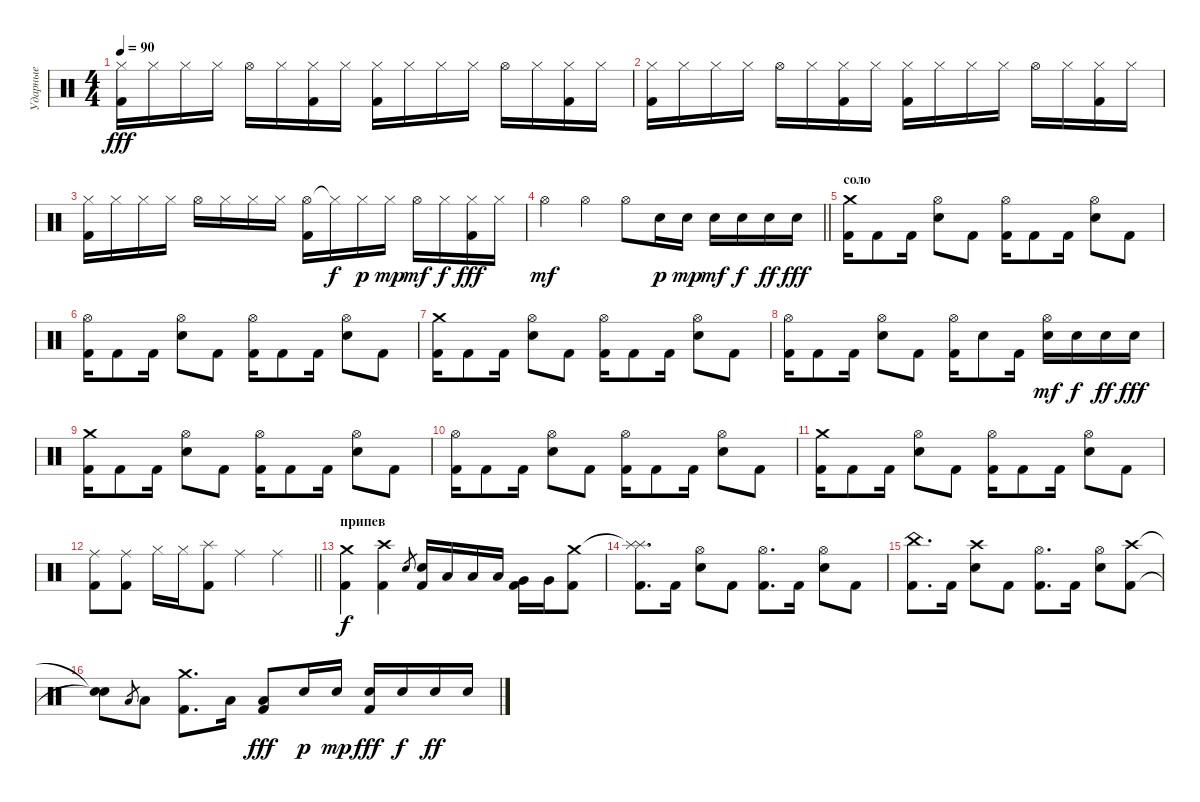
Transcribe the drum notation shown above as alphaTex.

\track ("Ударные" "Ударные") {instrument percussion}
\staff {score}
\articulation defaults
\ts (4 4)
\tempo 90
\clef neutral
\ks c
("Hi-Hat (closed)" "Kick (hit) 2").16{dy fff} "Hi-Hat (closed)".16 "Hi-Hat (closed)".16 "Hi-Hat (closed)".16 "Hi-Hat (open)".16 "Hi-Hat (closed)".16 ("Hi-Hat (closed)" "Kick (hit) 2").16 "Hi-Hat (closed)".16 ("Hi-Hat (closed)" "Kick (hit) 2").16 "Hi-Hat (closed)".16 "Hi-Hat (closed)".16 "Hi-Hat (closed)".16 "Hi-Hat (open)".16 "Hi-Hat (closed)".16 ("Hi-Hat (closed)" "Kick (hit) 2").16 "Hi-Hat (closed)".16 |
("Hi-Hat (closed)" "Kick (hit) 2").16 "Hi-Hat (closed)".16 "Hi-Hat (closed)".16 "Hi-Hat (closed)".16 "Hi-Hat (open)".16 "Hi-Hat (closed)".16 ("Hi-Hat (closed)" "Kick (hit) 2").16 "Hi-Hat (closed)".16 ("Hi-Hat (closed)" "Kick (hit) 2").16 "Hi-Hat (closed)".16 "Hi-Hat (closed)".16 "Hi-Hat (closed)".16 "Hi-Hat (open)".16 "Hi-Hat (closed)".16 ("Hi-Hat (closed)" "Kick (hit) 2").16 "Hi-Hat (closed)".16 |
("Hi-Hat (closed)" "Kick (hit) 2").16 "Hi-Hat (closed)".16 "Hi-Hat (closed)".16 "Hi-Hat (closed)".16 "Hi-Hat (open)".16 "Hi-Hat (closed)".16 "Hi-Hat (closed)".16 "Hi-Hat (closed)".16 ("Hi-Hat (open)" "Kick (hit) 2").16 "Hi-Hat (closed)"{t}.16{dy f} "Hi-Hat (closed)".16{dy p} "Hi-Hat (closed)".16{dy mp} "Hi-Hat (open)".16{dy mf} "Hi-Hat (closed)".16{dy f} ("Hi-Hat (closed)" "Kick (hit) 2").16{dy fff} "Hi-Hat (closed)".16 |
\barLineRight lightlight "Hi-Hat (open)".4{dy mf} "Hi-Hat (open)".4 "Hi-Hat (open)".8 "Snare (hit) 2".16{dy p} "Snare (hit) 2".16{dy mp} "Snare (hit) 2".16{dy mf} "Snare (hit) 2".16{dy f} "Snare (hit) 2".16{dy ff} "Snare (hit) 2".16{dy fff}
|
\section ("" "соло")
("Crash medium (hit)" "Kick (hit) 2").16 "Kick (hit) 2".8 "Kick (hit) 2".16 ("Hi-Hat (open)" "Snare (hit) 2").8 "Kick (hit) 2".8 ("Hi-Hat (open)" "Kick (hit) 2").16 "Kick (hit) 2".8 "Kick (hit) 2".16 ("Hi-Hat (open)" "Snare (hit) 2").8 "Kick (hit) 2".8 |
("Hi-Hat (open)" "Kick (hit) 2").16 "Kick (hit) 2".8 "Kick (hit) 2".16 ("Hi-Hat (open)" "Snare (hit) 2").8 "Kick (hit) 2".8 ("Hi-Hat (open)" "Kick (hit) 2").16 "Kick (hit) 2".8 "Kick (hit) 2".16 ("Hi-Hat (open)" "Snare (hit) 2").8 "Kick (hit) 2".8 |
("Crash medium (hit)" "Kick (hit) 2").16 "Kick (hit) 2".8 "Kick (hit) 2".16 ("Hi-Hat (open)" "Snare (hit) 2").8 "Kick (hit) 2".8 ("Hi-Hat (open)" "Kick (hit) 2").16 "Kick (hit) 2".8 "Kick (hit) 2".16 ("Hi-Hat (open)" "Snare (hit) 2").8 "Kick (hit) 2".8 |
("Hi-Hat (open)" "Kick (hit) 2").16 "Kick (hit) 2".8 "Kick (hit) 2".16 ("Hi-Hat (open)" "Snare (hit) 2").8 "Kick (hit) 2".8 ("Hi-Hat (open)" "Kick (hit) 2").16 "Snare (hit) 2".8 "Kick (hit) 2".16 ("Hi-Hat (open)" "Snare (hit) 2").16{dy mf} "Snare (hit) 2".16{dy f} "Snare (hit) 2".16{dy ff} "Snare (hit) 2".16{dy fff} |
("Crash medium (hit)" "Kick (hit) 2").16 "Kick (hit) 2".8 "Kick (hit) 2".16 ("Hi-Hat (open)" "Snare (hit) 2").8 "Kick (hit) 2".8 ("Hi-Hat (open)" "Kick (hit) 2").16 "Kick (hit) 2".8 "Kick (hit) 2".16 ("Hi-Hat (open)" "Snare (hit) 2").8 "Kick (hit) 2".8 |
("Hi-Hat (open)" "Kick (hit) 2").16 "Kick (hit) 2".8 "Kick (hit) 2".16 ("Hi-Hat (open)" "Snare (hit) 2").8 "Kick (hit) 2".8 ("Hi-Hat (open)" "Kick (hit) 2").16 "Kick (hit) 2".8 "Kick (hit) 2".16 ("Hi-Hat (open)" "Snare (hit) 2").8 "Kick (hit) 2".8 |
("Crash medium (hit)" "Kick (hit) 2").16 "Kick (hit) 2".8 "Kick (hit) 2".16 ("Hi-Hat (open)" "Snare (hit) 2").8 "Kick (hit) 2".8 ("Hi-Hat (open)" "Kick (hit) 2").16 "Kick (hit) 2".8 "Kick (hit) 2".16 ("Hi-Hat (open)" "Snare (hit) 2").8 "Kick (hit) 2".8 |
\barLineRight lightlight
("Ride (middle)" "Kick (hit) 2").8 ("Ride (middle)" "Kick (hit) 2").8 "Hi-Hat (closed)".16 "Hi-Hat (closed)".16 ("Splash (hit)" "Kick (hit) 2").8 "Ride (middle)".4 "Ride (middle)".4 |
\section ("" "припев")
("Crash medium (hit)" "Kick (hit) 2").4{dy f} ("Crash high (hit)" "Kick (hit) 2").4 "Snare (hit) 2".8{gr} ("Snare (hit) 2" "Kick (hit) 2").16 "Low Tom (hit)".16 "Low Tom (hit)".16 "Low Tom (hit)".16 ("Very Low Tom (hit)" "Kick (hit) 2").16 "Very Low Tom (hit)".16 ("Crash medium (hit)" "Kick (hit) 2").8 |
("Splash (hit)"{t} "Splash (hit)" "Kick (hit) 2").8{d} "Kick (hit) 2".16 ("Hi-Hat (open)" "Snare (hit) 2").8 "Kick (hit) 2".8 ("Hi-Hat (open)" "Kick (hit) 2").8{d} "Kick (hit) 2".16 ("Hi-Hat (open)" "Snare (hit) 2").8 "Kick (hit) 2".8 |
("China (hit)" "Kick (hit) 2").8{d} "Kick (hit) 2".16 ("Crash high (hit)" "Snare (hit) 2").8 "Kick (hit) 2".8 ("Hi-Hat (open)" "Kick (hit) 2").8{d} "Kick (hit) 2".16 ("Hi-Hat (open)" "Snare (hit) 2").8 ("Crash high (hit)" "Kick (hit) 2").8 |
("Snare (hit)"{t} "Snare (hit)"{t}).8 "Low Tom (hit)".8{gr} "Low Tom (hit)".8 ("Crash medium (hit)" "Kick (hit) 2").8{d} "Low Tom (hit)".16 ("Low Tom (hit)" "Kick (hit) 2").8{dy fff} "Snare (hit) 2".16{dy p} "Snare (hit) 2".16{dy mp} ("Snare (hit) 2" "Kick (hit) 2").16{dy fff} "Snare (hit) 2".16{dy f} "Snare (hit) 2".16{dy ff} "Snare (hit) 2".16
